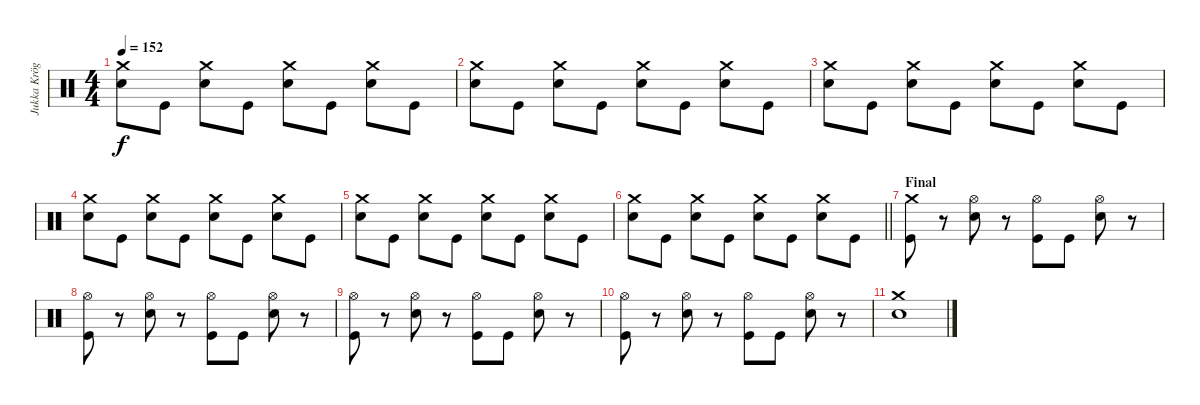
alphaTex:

\track ("Jukka Kröger" "Jukka Krög") {instrument percussion}
\staff {score}
\articulation defaults
\ts (4 4)
\tempo 152
\clef neutral
\ks aminor
("Crash medium (hit)" "Snare (hit) 2").8{dy f} "Kick (hit)".8 ("Crash medium (hit)" "Snare (hit) 2").8 "Kick (hit)".8 ("Crash medium (hit)" "Snare (hit) 2").8 "Kick (hit)".8 ("Crash medium (hit)" "Snare (hit) 2").8 "Kick (hit)".8 |
("Crash medium (hit)" "Snare (hit) 2").8 "Kick (hit)".8 ("Crash medium (hit)" "Snare (hit) 2").8 "Kick (hit)".8 ("Crash medium (hit)" "Snare (hit) 2").8 "Kick (hit)".8 ("Crash medium (hit)" "Snare (hit) 2").8 "Kick (hit)".8 |
("Crash medium (hit)" "Snare (hit) 2").8 "Kick (hit)".8 ("Crash medium (hit)" "Snare (hit) 2").8 "Kick (hit)".8 ("Crash medium (hit)" "Snare (hit) 2").8 "Kick (hit)".8 ("Crash medium (hit)" "Snare (hit) 2").8 "Kick (hit)".8 |
("Crash medium (hit)" "Snare (hit) 2").8 "Kick (hit)".8 ("Crash medium (hit)" "Snare (hit) 2").8 "Kick (hit)".8 ("Crash medium (hit)" "Snare (hit) 2").8 "Kick (hit)".8 ("Crash medium (hit)" "Snare (hit) 2").8 "Kick (hit)".8 |
("Crash medium (hit)" "Snare (hit) 2").8 "Kick (hit)".8 ("Crash medium (hit)" "Snare (hit) 2").8 "Kick (hit)".8 ("Crash medium (hit)" "Snare (hit) 2").8 "Kick (hit)".8 ("Crash medium (hit)" "Snare (hit) 2").8 "Kick (hit)".8 |
\barLineRight lightlight
("Crash medium (hit)" "Snare (hit) 2").8 "Kick (hit)".8 ("Crash medium (hit)" "Snare (hit) 2").8 "Kick (hit)".8 ("Crash medium (hit)" "Snare (hit) 2").8 "Kick (hit)".8 ("Crash medium (hit)" "Snare (hit) 2").8 "Kick (hit)".8 |
\section ("" "Final")
("Crash medium (hit)" "Kick (hit)").8 r.8 ("Hi-Hat (open)" "Snare (hit) 2").8 r.8 ("Hi-Hat (open)" "Kick (hit)").8 "Kick (hit)".8 ("Hi-Hat (open)" "Snare (hit) 2").8 r.8 |
("Hi-Hat (open)" "Kick (hit)").8 r.8 ("Hi-Hat (open)" "Snare (hit) 2").8 r.8 ("Hi-Hat (open)" "Kick (hit)").8 "Kick (hit)".8 ("Hi-Hat (open)" "Snare (hit) 2").8 r.8 |
("Hi-Hat (open)" "Kick (hit)").8 r.8 ("Hi-Hat (open)" "Snare (hit) 2").8 r.8 ("Hi-Hat (open)" "Kick (hit)").8 "Kick (hit)".8 ("Hi-Hat (open)" "Snare (hit) 2").8 r.8 |
("Hi-Hat (open)" "Kick (hit)").8 r.8 ("Hi-Hat (open)" "Snare (hit) 2").8 r.8 ("Hi-Hat (open)" "Kick (hit)").8 "Kick (hit)".8 ("Hi-Hat (open)" "Snare (hit) 2").8 r.8 |
("Crash medium (hit)" "Snare (hit) 2").1
